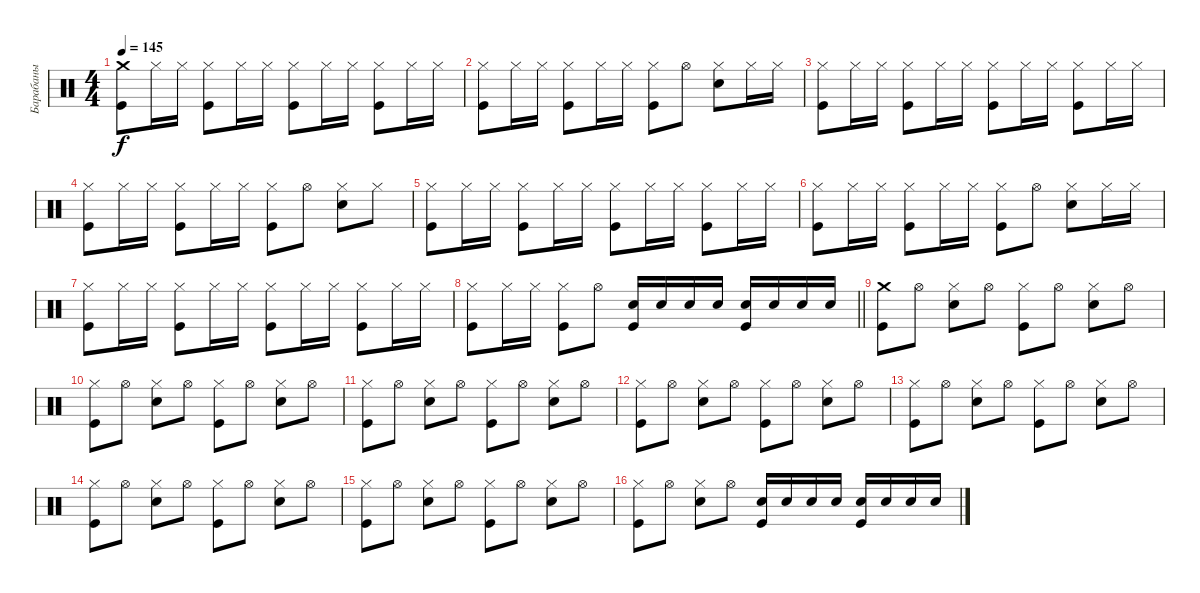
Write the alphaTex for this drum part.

\track ("Барабаны" "Барабаны") {instrument percussion}
\staff {score}
\articulation defaults
\ts (4 4)
\tempo 145
\clef neutral
\ks c
("Crash medium (hit)" "Kick (hit)").8{dy f} "Hi-Hat (closed)".16 "Hi-Hat (closed)".16 ("Hi-Hat (closed)" "Kick (hit)").8 "Hi-Hat (closed)".16 "Hi-Hat (closed)".16 ("Hi-Hat (closed)" "Kick (hit)").8 "Hi-Hat (closed)".16 "Hi-Hat (closed)".16 ("Hi-Hat (closed)" "Kick (hit)").8 "Hi-Hat (closed)".16 "Hi-Hat (closed)".16 |
("Hi-Hat (closed)" "Kick (hit)").8 "Hi-Hat (closed)".16 "Hi-Hat (closed)".16 ("Hi-Hat (closed)" "Kick (hit)").8 "Hi-Hat (closed)".16 "Hi-Hat (closed)".16 ("Hi-Hat (closed)" "Kick (hit)").8 "Hi-Hat (open)".8 ("Hi-Hat (closed)" "Electric Snare (hit)").8 "Hi-Hat (closed)".16 "Hi-Hat (closed)".16 |
("Hi-Hat (closed)" "Kick (hit)").8 "Hi-Hat (closed)".16 "Hi-Hat (closed)".16 ("Hi-Hat (closed)" "Kick (hit)").8 "Hi-Hat (closed)".16 "Hi-Hat (closed)".16 ("Hi-Hat (closed)" "Kick (hit)").8 "Hi-Hat (closed)".16 "Hi-Hat (closed)".16 ("Hi-Hat (closed)" "Kick (hit)").8 "Hi-Hat (closed)".16 "Hi-Hat (closed)".16 |
("Hi-Hat (closed)" "Kick (hit)").8 "Hi-Hat (closed)".16 "Hi-Hat (closed)".16 ("Hi-Hat (closed)" "Kick (hit)").8 "Hi-Hat (closed)".16 "Hi-Hat (closed)".16 ("Hi-Hat (closed)" "Kick (hit)").8 "Hi-Hat (open)".8 ("Hi-Hat (closed)" "Electric Snare (hit)").8 "Hi-Hat (closed)".8 |
("Hi-Hat (closed)" "Kick (hit)").8 "Hi-Hat (closed)".16 "Hi-Hat (closed)".16 ("Hi-Hat (closed)" "Kick (hit)").8 "Hi-Hat (closed)".16 "Hi-Hat (closed)".16 ("Hi-Hat (closed)" "Kick (hit)").8 "Hi-Hat (closed)".16 "Hi-Hat (closed)".16 ("Hi-Hat (closed)" "Kick (hit)").8 "Hi-Hat (closed)".16 "Hi-Hat (closed)".16 |
("Hi-Hat (closed)" "Kick (hit)").8 "Hi-Hat (closed)".16 "Hi-Hat (closed)".16 ("Hi-Hat (closed)" "Kick (hit)").8 "Hi-Hat (closed)".16 "Hi-Hat (closed)".16 ("Hi-Hat (closed)" "Kick (hit)").8 "Hi-Hat (open)".8 ("Hi-Hat (closed)" "Electric Snare (hit)").8 "Hi-Hat (closed)".16 "Hi-Hat (closed)".16 |
("Hi-Hat (closed)" "Kick (hit)").8 "Hi-Hat (closed)".16 "Hi-Hat (closed)".16 ("Hi-Hat (closed)" "Kick (hit)").8 "Hi-Hat (closed)".16 "Hi-Hat (closed)".16 ("Hi-Hat (closed)" "Kick (hit)").8 "Hi-Hat (closed)".16 "Hi-Hat (closed)".16 ("Hi-Hat (closed)" "Kick (hit)").8 "Hi-Hat (closed)".16 "Hi-Hat (closed)".16 |
\barLineRight lightlight
("Hi-Hat (closed)" "Kick (hit)").8 "Hi-Hat (closed)".16 "Hi-Hat (closed)".16 ("Hi-Hat (closed)" "Kick (hit)").8 "Hi-Hat (open)".8 ("Electric Snare (hit)" "Kick (hit)").16 "Electric Snare (hit)".16 "Electric Snare (hit)".16 "Electric Snare (hit)".16 ("Electric Snare (hit)" "Kick (hit)").16 "Electric Snare (hit)".16 "Electric Snare (hit)".16 "Electric Snare (hit)".16 |
("Crash medium (hit)" "Kick (hit)").8 "Hi-Hat (open)".8 ("Hi-Hat (closed)" "Electric Snare (hit)").8 "Hi-Hat (open)".8 ("Hi-Hat (closed)" "Kick (hit)").8 "Hi-Hat (open)".8 ("Hi-Hat (closed)" "Electric Snare (hit)").8 "Hi-Hat (open)".8 |
("Hi-Hat (closed)" "Kick (hit)").8 "Hi-Hat (open)".8 ("Hi-Hat (closed)" "Electric Snare (hit)").8 "Hi-Hat (open)".8 ("Hi-Hat (closed)" "Kick (hit)").8 "Hi-Hat (open)".8 ("Hi-Hat (closed)" "Electric Snare (hit)").8 "Hi-Hat (open)".8 |
("Hi-Hat (closed)" "Kick (hit)").8 "Hi-Hat (open)".8 ("Hi-Hat (closed)" "Electric Snare (hit)").8 "Hi-Hat (open)".8 ("Hi-Hat (closed)" "Kick (hit)").8 "Hi-Hat (open)".8 ("Hi-Hat (closed)" "Electric Snare (hit)").8 "Hi-Hat (open)".8 |
("Hi-Hat (closed)" "Kick (hit)").8 "Hi-Hat (open)".8 ("Hi-Hat (closed)" "Electric Snare (hit)").8 "Hi-Hat (open)".8 ("Hi-Hat (closed)" "Kick (hit)").8 "Hi-Hat (open)".8 ("Hi-Hat (closed)" "Electric Snare (hit)").8 "Hi-Hat (open)".8 |
("Hi-Hat (closed)" "Kick (hit)").8 "Hi-Hat (open)".8 ("Hi-Hat (closed)" "Electric Snare (hit)").8 "Hi-Hat (open)".8 ("Hi-Hat (closed)" "Kick (hit)").8 "Hi-Hat (open)".8 ("Hi-Hat (closed)" "Electric Snare (hit)").8 "Hi-Hat (open)".8 |
("Hi-Hat (closed)" "Kick (hit)").8 "Hi-Hat (open)".8 ("Hi-Hat (closed)" "Electric Snare (hit)").8 "Hi-Hat (open)".8 ("Hi-Hat (closed)" "Kick (hit)").8 "Hi-Hat (open)".8 ("Hi-Hat (closed)" "Electric Snare (hit)").8 "Hi-Hat (open)".8 |
("Hi-Hat (closed)" "Kick (hit)").8 "Hi-Hat (open)".8 ("Hi-Hat (closed)" "Electric Snare (hit)").8 "Hi-Hat (open)".8 ("Hi-Hat (closed)" "Kick (hit)").8 "Hi-Hat (open)".8 ("Hi-Hat (closed)" "Electric Snare (hit)").8 "Hi-Hat (open)".8 |
("Hi-Hat (closed)" "Kick (hit)").8 "Hi-Hat (open)".8 ("Hi-Hat (closed)" "Electric Snare (hit)").8 "Hi-Hat (open)".8 ("Electric Snare (hit)" "Kick (hit)").16 "Electric Snare (hit)".16 "Electric Snare (hit)".16 "Electric Snare (hit)".16 ("Electric Snare (hit)" "Kick (hit)").16 "Electric Snare (hit)".16 "Electric Snare (hit)".16 "Electric Snare (hit)".16
